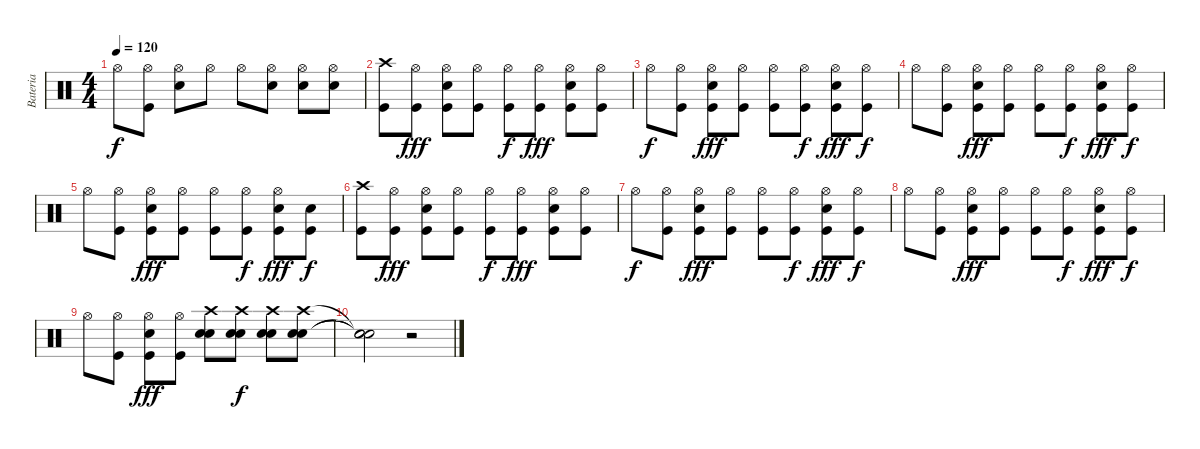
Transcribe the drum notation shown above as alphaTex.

\track ("Bateria" "Bateria") {instrument percussion}
\staff {score}
\articulation defaults
\ts (4 4)
\tempo 120
\clef neutral
\ks c "Hi-Hat (open)".8{dy f}
("Kick (hit)" "Hi-Hat (open)").8 ("Electric Snare (hit)" "Hi-Hat (open)").8 "Hi-Hat (open)".8 "Hi-Hat (open)".8 ("Electric Snare (hit)" "Hi-Hat (open)").8 ("Electric Snare (hit)" "Hi-Hat (open)").8 ("Electric Snare (hit)" "Hi-Hat (open)").8 |
("Kick (hit)" "Crash high (hit)").8 ("Kick (hit)" "Hi-Hat (open)").8{dy fff} ("Kick (hit)" "Electric Snare (hit)" "Hi-Hat (open)").8 ("Kick (hit)" "Hi-Hat (open)").8 ("Kick (hit)" "Hi-Hat (open)").8{dy f} ("Kick (hit)" "Hi-Hat (open)").8{dy fff} ("Kick (hit)" "Electric Snare (hit)" "Hi-Hat (open)").8 ("Kick (hit)" "Hi-Hat (open)").8 |
"Hi-Hat (open)".8{dy f} ("Kick (hit)" "Hi-Hat (open)").8 ("Kick (hit)" "Electric Snare (hit)" "Hi-Hat (open)").8{dy fff} ("Kick (hit)" "Hi-Hat (open)").8 ("Kick (hit)" "Hi-Hat (open)").8 ("Kick (hit)" "Hi-Hat (open)").8{dy f} ("Kick (hit)" "Electric Snare (hit)" "Hi-Hat (open)").8{dy fff} ("Kick (hit)" "Hi-Hat (open)").8{dy f} |
"Hi-Hat (open)".8 ("Kick (hit)" "Hi-Hat (open)").8 ("Kick (hit)" "Electric Snare (hit)" "Hi-Hat (open)").8{dy fff} ("Kick (hit)" "Hi-Hat (open)").8 ("Kick (hit)" "Hi-Hat (open)").8 ("Kick (hit)" "Hi-Hat (open)").8{dy f} ("Kick (hit)" "Electric Snare (hit)" "Hi-Hat (open)").8{dy fff} ("Kick (hit)" "Hi-Hat (open)").8{dy f} |
"Hi-Hat (open)".8 ("Kick (hit)" "Hi-Hat (open)").8 ("Kick (hit)" "Electric Snare (hit)" "Hi-Hat (open)").8{dy fff} ("Kick (hit)" "Hi-Hat (open)").8 ("Kick (hit)" "Hi-Hat (open)").8 ("Kick (hit)" "Hi-Hat (open)").8{dy f} ("Kick (hit)" "Electric Snare (hit)" "Hi-Hat (open)").8{dy fff} ("Kick (hit)" "Electric Snare (hit)").8{dy f} |
("Kick (hit)" "Crash high (hit)").8 ("Kick (hit)" "Hi-Hat (open)").8{dy fff} ("Kick (hit)" "Electric Snare (hit)" "Hi-Hat (open)").8 ("Kick (hit)" "Hi-Hat (open)").8 ("Kick (hit)" "Hi-Hat (open)").8{dy f} ("Kick (hit)" "Hi-Hat (open)").8{dy fff} ("Kick (hit)" "Electric Snare (hit)" "Hi-Hat (open)").8 ("Kick (hit)" "Hi-Hat (open)").8 |
"Hi-Hat (open)".8{dy f} ("Kick (hit)" "Hi-Hat (open)").8 ("Kick (hit)" "Electric Snare (hit)" "Hi-Hat (open)").8{dy fff} ("Kick (hit)" "Hi-Hat (open)").8 ("Kick (hit)" "Hi-Hat (open)").8 ("Kick (hit)" "Hi-Hat (open)").8{dy f} ("Kick (hit)" "Electric Snare (hit)" "Hi-Hat (open)").8{dy fff} ("Kick (hit)" "Hi-Hat (open)").8{dy f} |
"Hi-Hat (open)".8 ("Kick (hit)" "Hi-Hat (open)").8 ("Kick (hit)" "Electric Snare (hit)" "Hi-Hat (open)").8{dy fff} ("Kick (hit)" "Hi-Hat (open)").8 ("Kick (hit)" "Hi-Hat (open)").8 ("Kick (hit)" "Hi-Hat (open)").8{dy f} ("Kick (hit)" "Electric Snare (hit)" "Hi-Hat (open)").8{dy fff} ("Kick (hit)" "Hi-Hat (open)").8{dy f} |
"Hi-Hat (open)".8 ("Kick (hit)" "Hi-Hat (open)").8 ("Kick (hit)" "Electric Snare (hit)" "Hi-Hat (open)").8{dy fff} ("Kick (hit)" "Hi-Hat (open)").8 ("Electric Snare (hit)" "Electric Snare (hit)" "Crash high (hit)").8 ("Electric Snare (hit)" "Electric Snare (hit)" "Crash high (hit)").8{dy f} ("Electric Snare (hit)" "Electric Snare (hit)" "Crash high (hit)").8 ("Electric Snare (hit)" "Electric Snare (hit)" "Crash high (hit)").8 |
("Snare (hit)"{t} "Snare (hit)"{t} "Snare (hit)"{t}).2 r.2
